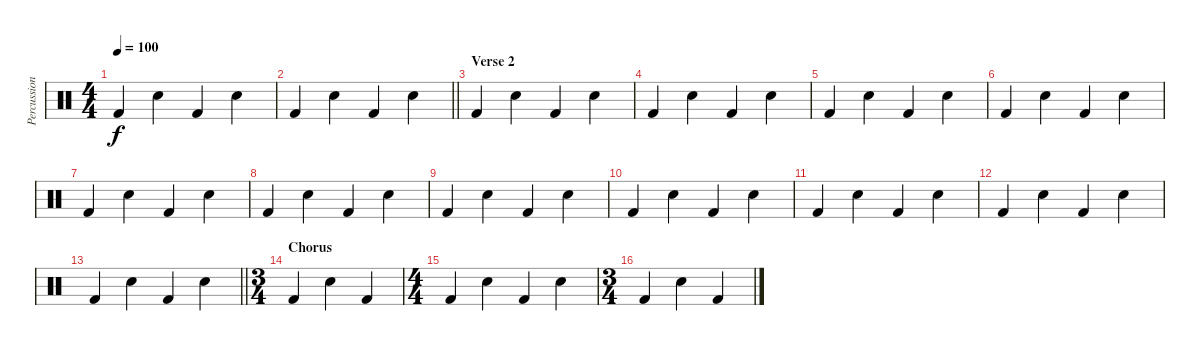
\track ("Percussion" "Percussion") {instrument percussion}
\staff {score}
\articulation defaults
\ts (4 4)
\tempo 100
\clef neutral
\ks c "Kick (hit) 2".4{dy f} "Snare (hit) 2".4 "Kick (hit) 2".4 "Snare (hit) 2".4
|
\barLineRight lightlight "Kick (hit) 2".4 "Snare (hit) 2".4 "Kick (hit) 2".4 "Snare (hit) 2".4
|
\section ("" "Verse 2")
"Kick (hit) 2".4 "Snare (hit) 2".4 "Kick (hit) 2".4 "Snare (hit) 2".4 |
"Kick (hit) 2".4 "Snare (hit) 2".4 "Kick (hit) 2".4 "Snare (hit) 2".4 |
"Kick (hit) 2".4 "Snare (hit) 2".4 "Kick (hit) 2".4 "Snare (hit) 2".4 |
"Kick (hit) 2".4 "Snare (hit) 2".4 "Kick (hit) 2".4 "Snare (hit) 2".4 |
"Kick (hit) 2".4 "Snare (hit) 2".4 "Kick (hit) 2".4 "Snare (hit) 2".4 |
"Kick (hit) 2".4 "Snare (hit) 2".4 "Kick (hit) 2".4 "Snare (hit) 2".4 |
"Kick (hit) 2".4 "Snare (hit) 2".4 "Kick (hit) 2".4 "Snare (hit) 2".4 |
"Kick (hit) 2".4 "Snare (hit) 2".4 "Kick (hit) 2".4 "Snare (hit) 2".4 |
"Kick (hit) 2".4 "Snare (hit) 2".4 "Kick (hit) 2".4 "Snare (hit) 2".4 |
"Kick (hit) 2".4 "Snare (hit) 2".4 "Kick (hit) 2".4 "Snare (hit) 2".4 |
\barLineRight lightlight "Kick (hit) 2".4 "Snare (hit) 2".4 "Kick (hit) 2".4 "Snare (hit) 2".4
|
\ts (3 4)
\section ("" "Chorus")
"Kick (hit) 2".4 "Snare (hit) 2".4 "Kick (hit) 2".4 |
\ts (4 4)
"Kick (hit) 2".4 "Snare (hit) 2".4 "Kick (hit) 2".4 "Snare (hit) 2".4 |
\ts (3 4)
"Kick (hit) 2".4 "Snare (hit) 2".4 "Kick (hit) 2".4
